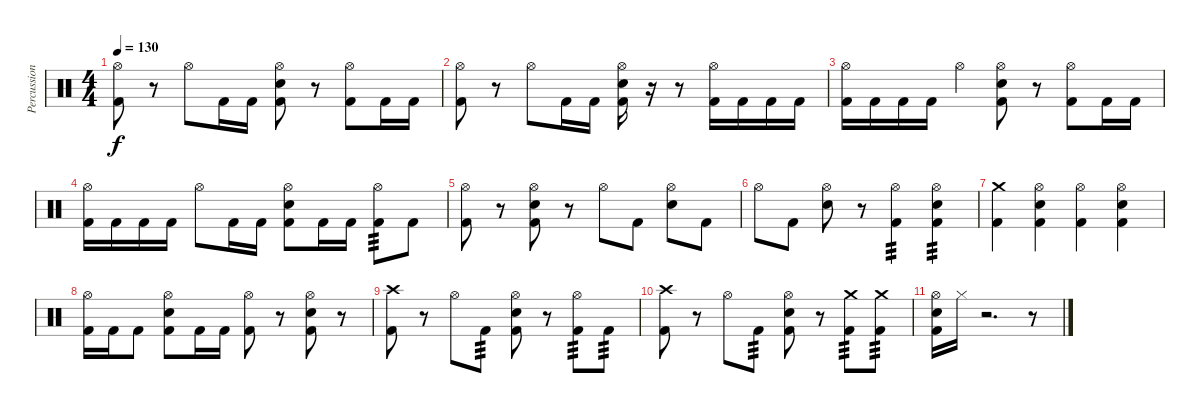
\track ("Percussion" "Percussion") {instrument percussion}
\staff {score}
\articulation defaults
\ts (4 4)
\tempo 130
\clef neutral
\ks c
("Hi-Hat (open)" "Kick (hit) 2").8{dy f} r.8 "Hi-Hat (open)".8 "Kick (hit) 2".16 "Kick (hit) 2".16 ("Hi-Hat (open)" "Electric Snare (hit)" "Kick (hit) 2").8 r.8 ("Hi-Hat (open)" "Kick (hit) 2").8 "Kick (hit) 2".16 "Kick (hit) 2".16 |
("Hi-Hat (open)" "Kick (hit) 2").8 r.8 "Hi-Hat (open)".8 "Kick (hit) 2".16 "Kick (hit) 2".16 ("Hi-Hat (open)" "Electric Snare (hit)" "Kick (hit) 2").16 r.16 r.8 ("Hi-Hat (open)" "Kick (hit) 2").16 "Kick (hit) 2".16 "Kick (hit) 2".16 "Kick (hit) 2".16 |
("Hi-Hat (open)" "Kick (hit) 2").16 "Kick (hit) 2".16 "Kick (hit) 2".16 "Kick (hit) 2".16 "Hi-Hat (open)".4 ("Hi-Hat (open)" "Electric Snare (hit)" "Kick (hit) 2").8 r.8 ("Hi-Hat (open)" "Kick (hit) 2").8 "Kick (hit) 2".16 "Kick (hit) 2".16 |
("Hi-Hat (open)" "Kick (hit) 2").16 "Kick (hit) 2".16 "Kick (hit) 2".16 "Kick (hit) 2".16 "Hi-Hat (open)".8 "Kick (hit) 2".16 "Kick (hit) 2".16 ("Hi-Hat (open)" "Electric Snare (hit)" "Kick (hit) 2").8 "Kick (hit) 2".16 "Kick (hit) 2".16 ("Hi-Hat (open)" "Kick (hit) 2").8{tp 3} "Kick (hit) 2".8 |
("Hi-Hat (open)" "Kick (hit) 2").8 r.8 ("Hi-Hat (open)" "Electric Snare (hit)" "Kick (hit) 2").8 r.8 "Hi-Hat (open)".8 "Kick (hit) 2".8 ("Hi-Hat (open)" "Electric Snare (hit)").8 "Kick (hit) 2".8 |
"Hi-Hat (open)".8 "Kick (hit) 2".8 ("Hi-Hat (open)" "Electric Snare (hit)").8 r.8 ("Hi-Hat (open)" "Kick (hit) 2").4{tp 3} ("Hi-Hat (open)" "Electric Snare (hit)" "Kick (hit) 2").4{tp 3} |
("Crash medium (hit)" "Kick (hit) 2").4 ("Hi-Hat (open)" "Electric Snare (hit)" "Kick (hit) 2").4 ("Hi-Hat (open)" "Kick (hit) 2").4 ("Hi-Hat (open)" "Electric Snare (hit)" "Kick (hit) 2").4 |
("Hi-Hat (open)" "Kick (hit) 2").16 "Kick (hit) 2".16 "Kick (hit) 2".8 ("Hi-Hat (open)" "Electric Snare (hit)" "Kick (hit) 2").8 "Kick (hit) 2".16 "Kick (hit) 2".16 ("Hi-Hat (open)" "Kick (hit) 2").8 r.8 ("Hi-Hat (open)" "Electric Snare (hit)" "Kick (hit) 2").8 r.8 |
("Crash high (hit)" "Kick (hit) 2").8 r.8 "Hi-Hat (open)".8 "Kick (hit) 2".8{tp 3} ("Hi-Hat (open)" "Electric Snare (hit)" "Kick (hit) 2").8 r.8 ("Hi-Hat (open)" "Kick (hit) 2").8{tp 3} "Kick (hit) 2".8{tp 3} |
("Crash high (hit)" "Kick (hit) 2").8 r.8 "Hi-Hat (open)".8 "Kick (hit) 2".8{tp 3} ("Hi-Hat (open)" "Electric Snare (hit)" "Kick (hit) 2").8 r.8 ("Crash medium (hit)" "Kick (hit) 2").8{tp 3} ("Crash medium (hit)" "Kick (hit) 2").8{tp 3} |
("Hi-Hat (open)" "Electric Snare (hit)" "Kick (hit) 2").16 "Hi-Hat (closed)".16 r.2{d} r.8
